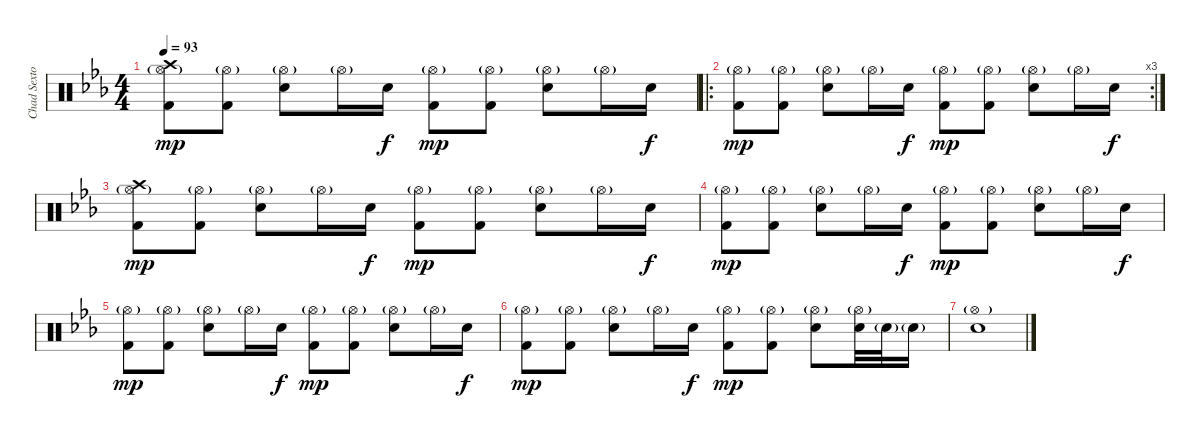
\track ("Chad Sexton (Drums)" "Chad Sexto") {instrument percussion}
\staff {score}
\articulation defaults
\ts (4 4)
\tempo 93
\clef neutral
\ks eb
("Crash high (hit)" "Hi-Hat (open)"{g} "Kick (hit) 2").8{dy mp} ("Hi-Hat (open)"{g} "Kick (hit) 2").8 ("Hi-Hat (open)"{g} "Snare (hit) 2").8 "Hi-Hat (open)"{g}.16 "Snare (hit) 2".16{dy f} ("Hi-Hat (open)"{g} "Kick (hit) 2").8{dy mp} ("Hi-Hat (open)"{g} "Kick (hit) 2").8 ("Hi-Hat (open)"{g} "Snare (hit) 2").8 "Hi-Hat (open)"{g}.16 "Snare (hit) 2".16{dy f} |
\ro
\rc 3
("Hi-Hat (open)"{g} "Kick (hit) 2").8{dy mp} ("Hi-Hat (open)"{g} "Kick (hit) 2").8 ("Hi-Hat (open)"{g} "Snare (hit) 2").8 "Hi-Hat (open)"{g}.16 "Snare (hit) 2".16{dy f} ("Hi-Hat (open)"{g} "Kick (hit) 2").8{dy mp} ("Hi-Hat (open)"{g} "Kick (hit) 2").8 ("Hi-Hat (open)"{g} "Snare (hit) 2").8 "Hi-Hat (open)"{g}.16 "Snare (hit) 2".16{dy f} |
("Crash high (hit)" "Hi-Hat (open)"{g} "Kick (hit) 2").8{dy mp} ("Hi-Hat (open)"{g} "Kick (hit) 2").8 ("Hi-Hat (open)"{g} "Snare (hit) 2").8 "Hi-Hat (open)"{g}.16 "Snare (hit) 2".16{dy f} ("Hi-Hat (open)"{g} "Kick (hit) 2").8{dy mp} ("Hi-Hat (open)"{g} "Kick (hit) 2").8 ("Hi-Hat (open)"{g} "Snare (hit) 2").8 "Hi-Hat (open)"{g}.16 "Snare (hit) 2".16{dy f} |
("Hi-Hat (open)"{g} "Kick (hit) 2").8{dy mp} ("Hi-Hat (open)"{g} "Kick (hit) 2").8 ("Hi-Hat (open)"{g} "Snare (hit) 2").8 "Hi-Hat (open)"{g}.16 "Snare (hit) 2".16{dy f} ("Hi-Hat (open)"{g} "Kick (hit) 2").8{dy mp} ("Hi-Hat (open)"{g} "Kick (hit) 2").8 ("Hi-Hat (open)"{g} "Snare (hit) 2").8 "Hi-Hat (open)"{g}.16 "Snare (hit) 2".16{dy f} |
("Hi-Hat (open)"{g} "Kick (hit) 2").8{dy mp} ("Hi-Hat (open)"{g} "Kick (hit) 2").8 ("Hi-Hat (open)"{g} "Snare (hit) 2").8 "Hi-Hat (open)"{g}.16 "Snare (hit) 2".16{dy f} ("Hi-Hat (open)"{g} "Kick (hit) 2").8{dy mp} ("Hi-Hat (open)"{g} "Kick (hit) 2").8 ("Hi-Hat (open)"{g} "Snare (hit) 2").8 "Hi-Hat (open)"{g}.16 "Snare (hit) 2".16{dy f} |
("Hi-Hat (open)"{g} "Kick (hit) 2").8{dy mp} ("Hi-Hat (open)"{g} "Kick (hit) 2").8 ("Hi-Hat (open)"{g} "Snare (hit) 2").8 "Hi-Hat (open)"{g}.16 "Snare (hit) 2".16{dy f} ("Hi-Hat (open)"{g} "Kick (hit) 2").8{dy mp} ("Hi-Hat (open)"{g} "Kick (hit) 2").8 ("Hi-Hat (open)"{g} "Snare (hit) 2").8 ("Hi-Hat (open)"{g} "Snare (hit) 2").32 "Snare (hit) 2"{g}.32 "Snare (hit) 2"{g}.16 |
("Hi-Hat (open)"{g} "Snare (hit) 2").1
